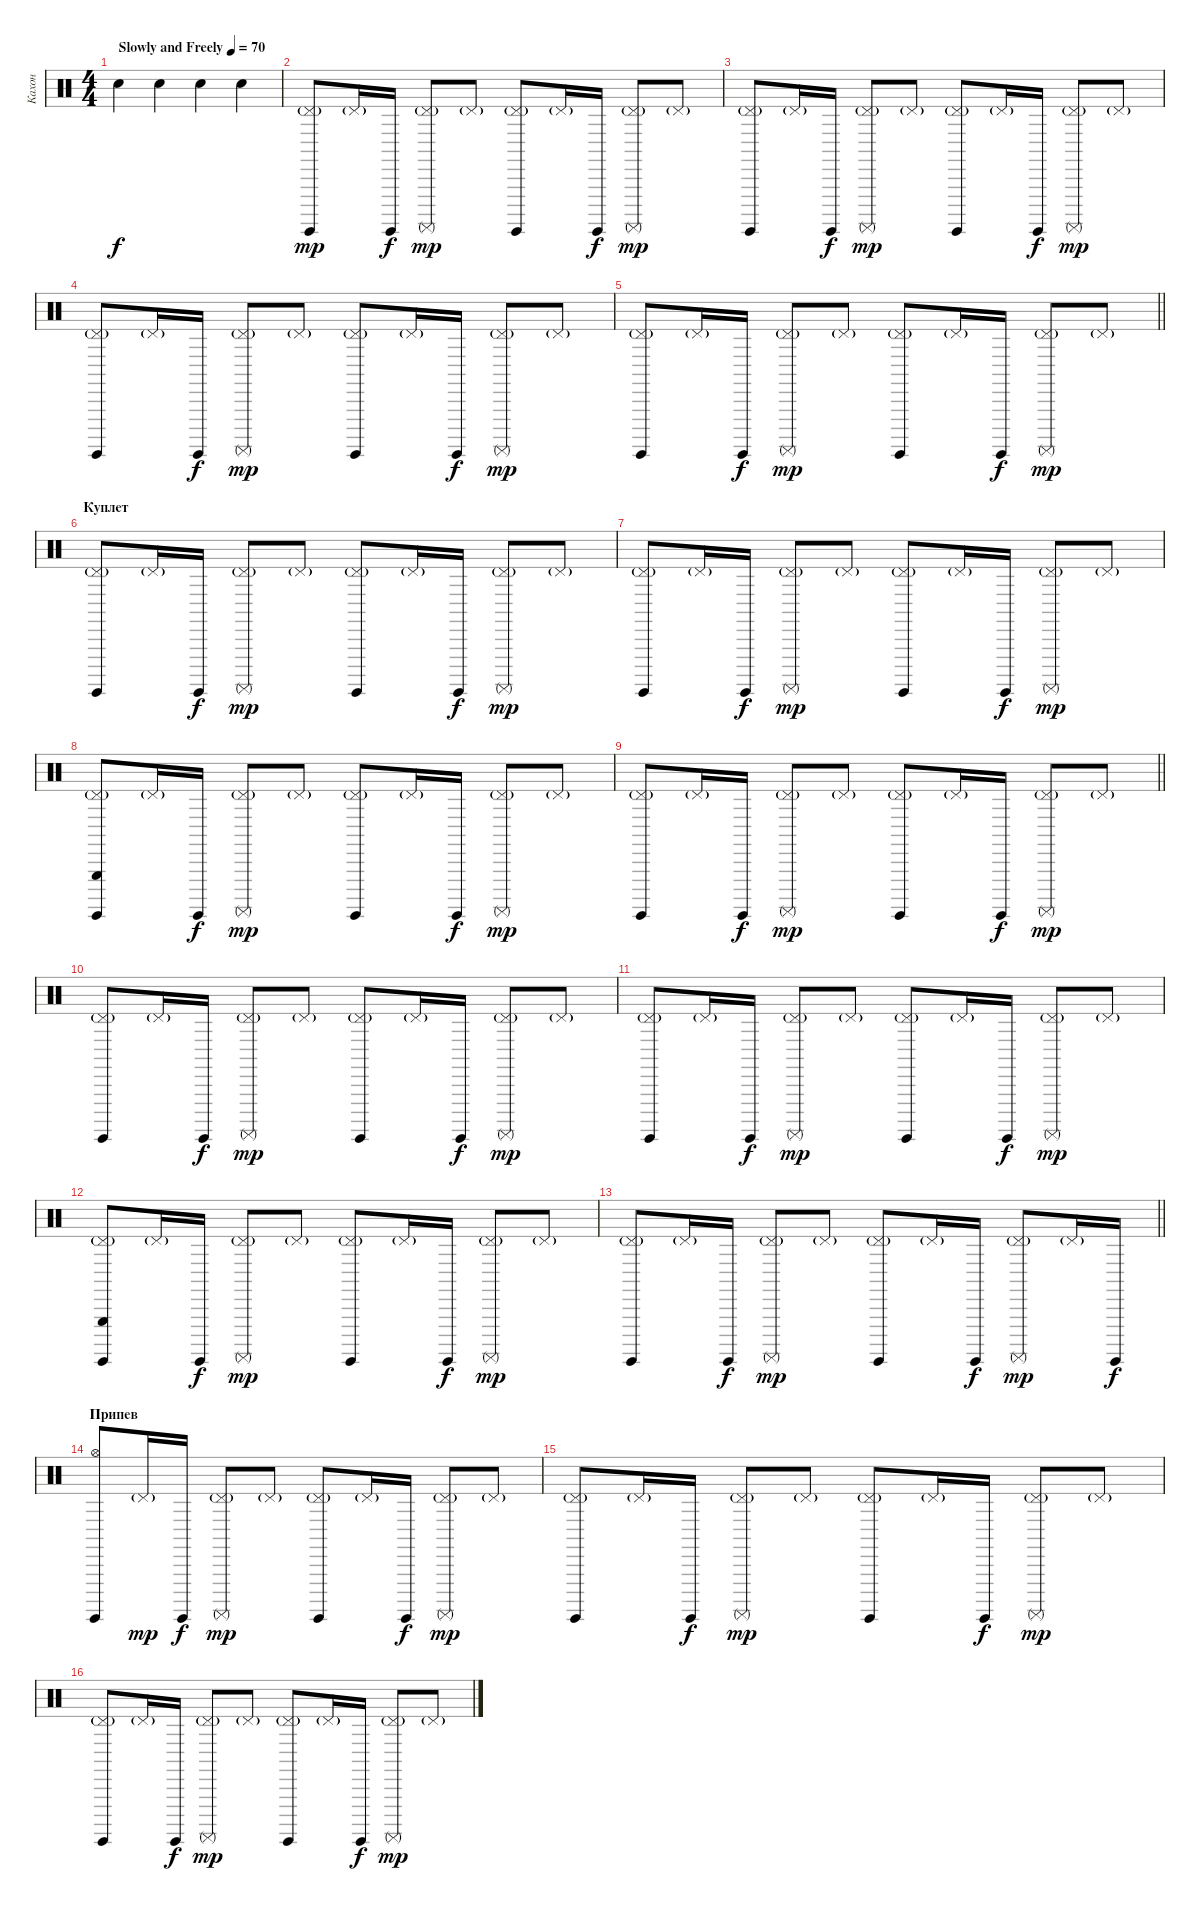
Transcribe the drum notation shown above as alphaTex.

\track ("Кахон" "Кахон") {instrument percussion}
\staff {score}
\articulation defaults
\ts (4 4)
\tempo (70 "Slowly and Freely")
\clef neutral
\ks c "Hand Clap (hit)".4{dy f} "Hand Clap (hit)".4 "Hand Clap (hit)".4 "Hand Clap (hit)".4
|
("Surdo (hit)" "Pedal Hi-Hat (hit)"{g}).8{dy mp} "Pedal Hi-Hat (hit)"{g}.16 "Surdo (hit)".16{dy f} ("Surdo (mute)" "Pedal Hi-Hat (hit)"{g}).8{dy mp} "Pedal Hi-Hat (hit)"{g}.8 ("Surdo (hit)" "Pedal Hi-Hat (hit)"{g}).8 "Pedal Hi-Hat (hit)"{g}.16 "Surdo (hit)".16{dy f} ("Surdo (mute)" "Pedal Hi-Hat (hit)"{g}).8{dy mp} "Pedal Hi-Hat (hit)"{g}.8 |
("Surdo (hit)" "Pedal Hi-Hat (hit)"{g}).8 "Pedal Hi-Hat (hit)"{g}.16 "Surdo (hit)".16{dy f} ("Surdo (mute)" "Pedal Hi-Hat (hit)"{g}).8{dy mp} "Pedal Hi-Hat (hit)"{g}.8 ("Surdo (hit)" "Pedal Hi-Hat (hit)"{g}).8 "Pedal Hi-Hat (hit)"{g}.16 "Surdo (hit)".16{dy f} ("Surdo (mute)" "Pedal Hi-Hat (hit)"{g}).8{dy mp} "Pedal Hi-Hat (hit)"{g}.8 |
("Surdo (hit)" "Pedal Hi-Hat (hit)"{g}).8 "Pedal Hi-Hat (hit)"{g}.16 "Surdo (hit)".16{dy f} ("Surdo (mute)" "Pedal Hi-Hat (hit)"{g}).8{dy mp} "Pedal Hi-Hat (hit)"{g}.8 ("Surdo (hit)" "Pedal Hi-Hat (hit)"{g}).8 "Pedal Hi-Hat (hit)"{g}.16 "Surdo (hit)".16{dy f} ("Surdo (mute)" "Pedal Hi-Hat (hit)"{g}).8{dy mp} "Pedal Hi-Hat (hit)"{g}.8 |
\barLineRight lightlight
("Surdo (hit)" "Pedal Hi-Hat (hit)"{g}).8 "Pedal Hi-Hat (hit)"{g}.16 "Surdo (hit)".16{dy f} ("Surdo (mute)" "Pedal Hi-Hat (hit)"{g}).8{dy mp} "Pedal Hi-Hat (hit)"{g}.8 ("Surdo (hit)" "Pedal Hi-Hat (hit)"{g}).8 "Pedal Hi-Hat (hit)"{g}.16 "Surdo (hit)".16{dy f} ("Surdo (mute)" "Pedal Hi-Hat (hit)"{g}).8{dy mp} "Pedal Hi-Hat (hit)"{g}.8 |
\section ("" "Куплет")
("Surdo (hit)" "Pedal Hi-Hat (hit)"{g}).8 "Pedal Hi-Hat (hit)"{g}.16 "Surdo (hit)".16{dy f} ("Surdo (mute)" "Pedal Hi-Hat (hit)"{g}).8{dy mp} "Pedal Hi-Hat (hit)"{g}.8 ("Surdo (hit)" "Pedal Hi-Hat (hit)"{g}).8 "Pedal Hi-Hat (hit)"{g}.16 "Surdo (hit)".16{dy f} ("Surdo (mute)" "Pedal Hi-Hat (hit)"{g}).8{dy mp} "Pedal Hi-Hat (hit)"{g}.8 |
("Surdo (hit)" "Pedal Hi-Hat (hit)"{g}).8 "Pedal Hi-Hat (hit)"{g}.16 "Surdo (hit)".16{dy f} ("Surdo (mute)" "Pedal Hi-Hat (hit)"{g}).8{dy mp} "Pedal Hi-Hat (hit)"{g}.8 ("Surdo (hit)" "Pedal Hi-Hat (hit)"{g}).8 "Pedal Hi-Hat (hit)"{g}.16 "Surdo (hit)".16{dy f} ("Surdo (mute)" "Pedal Hi-Hat (hit)"{g}).8{dy mp} "Pedal Hi-Hat (hit)"{g}.8 |
("Triangle (hit)" "Surdo (hit)" "Pedal Hi-Hat (hit)"{g}).8 "Pedal Hi-Hat (hit)"{g}.16 "Surdo (hit)".16{dy f} ("Surdo (mute)" "Pedal Hi-Hat (hit)"{g}).8{dy mp} "Pedal Hi-Hat (hit)"{g}.8 ("Surdo (hit)" "Pedal Hi-Hat (hit)"{g}).8 "Pedal Hi-Hat (hit)"{g}.16 "Surdo (hit)".16{dy f} ("Surdo (mute)" "Pedal Hi-Hat (hit)"{g}).8{dy mp} "Pedal Hi-Hat (hit)"{g}.8 |
\barLineRight lightlight
("Surdo (hit)" "Pedal Hi-Hat (hit)"{g}).8 "Pedal Hi-Hat (hit)"{g}.16 "Surdo (hit)".16{dy f} ("Surdo (mute)" "Pedal Hi-Hat (hit)"{g}).8{dy mp} "Pedal Hi-Hat (hit)"{g}.8 ("Surdo (hit)" "Pedal Hi-Hat (hit)"{g}).8 "Pedal Hi-Hat (hit)"{g}.16 "Surdo (hit)".16{dy f} ("Surdo (mute)" "Pedal Hi-Hat (hit)"{g}).8{dy mp} "Pedal Hi-Hat (hit)"{g}.8 |
("Surdo (hit)" "Pedal Hi-Hat (hit)"{g}).8 "Pedal Hi-Hat (hit)"{g}.16 "Surdo (hit)".16{dy f} ("Surdo (mute)" "Pedal Hi-Hat (hit)"{g}).8{dy mp} "Pedal Hi-Hat (hit)"{g}.8 ("Surdo (hit)" "Pedal Hi-Hat (hit)"{g}).8 "Pedal Hi-Hat (hit)"{g}.16 "Surdo (hit)".16{dy f} ("Surdo (mute)" "Pedal Hi-Hat (hit)"{g}).8{dy mp} "Pedal Hi-Hat (hit)"{g}.8 |
("Surdo (hit)" "Pedal Hi-Hat (hit)"{g}).8 "Pedal Hi-Hat (hit)"{g}.16 "Surdo (hit)".16{dy f} ("Surdo (mute)" "Pedal Hi-Hat (hit)"{g}).8{dy mp} "Pedal Hi-Hat (hit)"{g}.8 ("Surdo (hit)" "Pedal Hi-Hat (hit)"{g}).8 "Pedal Hi-Hat (hit)"{g}.16 "Surdo (hit)".16{dy f} ("Surdo (mute)" "Pedal Hi-Hat (hit)"{g}).8{dy mp} "Pedal Hi-Hat (hit)"{g}.8 |
("Triangle (hit)" "Surdo (hit)" "Pedal Hi-Hat (hit)"{g}).8 "Pedal Hi-Hat (hit)"{g}.16 "Surdo (hit)".16{dy f} ("Surdo (mute)" "Pedal Hi-Hat (hit)"{g}).8{dy mp} "Pedal Hi-Hat (hit)"{g}.8 ("Surdo (hit)" "Pedal Hi-Hat (hit)"{g}).8 "Pedal Hi-Hat (hit)"{g}.16 "Surdo (hit)".16{dy f} ("Surdo (mute)" "Pedal Hi-Hat (hit)"{g}).8{dy mp} "Pedal Hi-Hat (hit)"{g}.8 |
\barLineRight lightlight
("Surdo (hit)" "Pedal Hi-Hat (hit)"{g}).8 "Pedal Hi-Hat (hit)"{g}.16 "Surdo (hit)".16{dy f} ("Surdo (mute)" "Pedal Hi-Hat (hit)"{g}).8{dy mp} "Pedal Hi-Hat (hit)"{g}.8 ("Surdo (hit)" "Pedal Hi-Hat (hit)"{g}).8 "Pedal Hi-Hat (hit)"{g}.16 "Surdo (hit)".16{dy f} ("Surdo (mute)" "Pedal Hi-Hat (hit)"{g}).8{dy mp} "Pedal Hi-Hat (hit)"{g}.16 "Surdo (hit)".16{dy f} |
\section ("" "Припев")
("Surdo (hit)" "Hi-Hat (open)").8 "Pedal Hi-Hat (hit)"{g}.16{dy mp} "Surdo (hit)".16{dy f} ("Surdo (mute)" "Pedal Hi-Hat (hit)"{g}).8{dy mp} "Pedal Hi-Hat (hit)"{g}.8 ("Surdo (hit)" "Pedal Hi-Hat (hit)"{g}).8 "Pedal Hi-Hat (hit)"{g}.16 "Surdo (hit)".16{dy f} ("Surdo (mute)" "Pedal Hi-Hat (hit)"{g}).8{dy mp} "Pedal Hi-Hat (hit)"{g}.8 |
("Surdo (hit)" "Pedal Hi-Hat (hit)"{g}).8 "Pedal Hi-Hat (hit)"{g}.16 "Surdo (hit)".16{dy f} ("Surdo (mute)" "Pedal Hi-Hat (hit)"{g}).8{dy mp} "Pedal Hi-Hat (hit)"{g}.8 ("Surdo (hit)" "Pedal Hi-Hat (hit)"{g}).8 "Pedal Hi-Hat (hit)"{g}.16 "Surdo (hit)".16{dy f} ("Surdo (mute)" "Pedal Hi-Hat (hit)"{g}).8{dy mp} "Pedal Hi-Hat (hit)"{g}.8 |
("Surdo (hit)" "Pedal Hi-Hat (hit)"{g}).8 "Pedal Hi-Hat (hit)"{g}.16 "Surdo (hit)".16{dy f} ("Surdo (mute)" "Pedal Hi-Hat (hit)"{g}).8{dy mp} "Pedal Hi-Hat (hit)"{g}.8 ("Surdo (hit)" "Pedal Hi-Hat (hit)"{g}).8 "Pedal Hi-Hat (hit)"{g}.16 "Surdo (hit)".16{dy f} ("Surdo (mute)" "Pedal Hi-Hat (hit)"{g}).8{dy mp} "Pedal Hi-Hat (hit)"{g}.8
